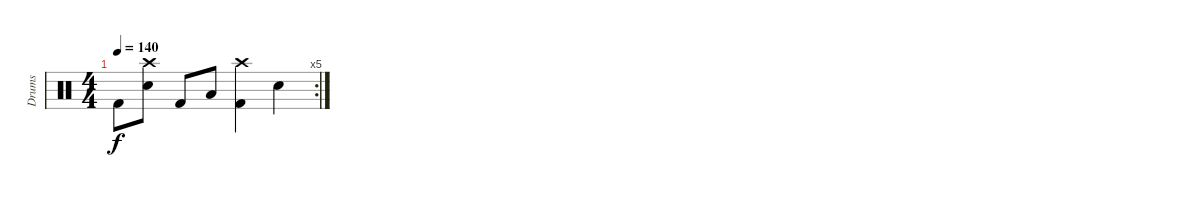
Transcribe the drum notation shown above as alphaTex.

\track ("Drums" "Drums") {instrument percussion}
\staff {score}
\articulation defaults
\rc 5
\ts (4 4)
\tempo 140
\clef neutral
\ks c "Kick (hit) 2".8{dy f}
("Crash high (hit)" "Electric Snare (hit)").8 "Kick (hit) 2".8 "Low Floor Tom (hit)".8 ("Crash high (hit)" "Kick (hit) 2").4 "Electric Snare (hit)".4
